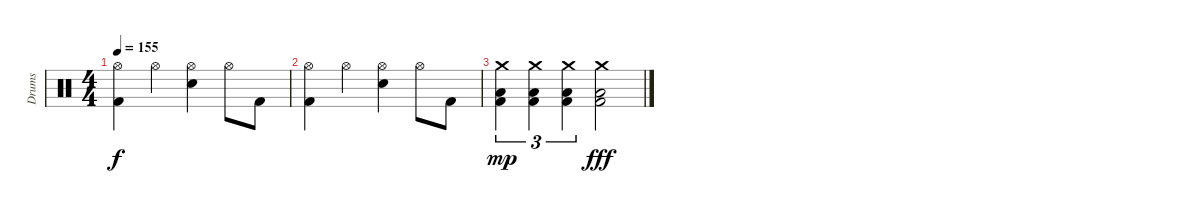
\track ("Drums" "Drums") {instrument percussion}
\staff {score}
\articulation defaults
\ts (4 4)
\tempo 155
\clef neutral
\ks c
("Kick (hit) 2" "Hi-Hat (open)").4{dy f} "Hi-Hat (open)".4 ("Electric Snare (hit)" "Hi-Hat (open)").4 "Hi-Hat (open)".8 "Kick (hit) 2".8 |
("Kick (hit) 2" "Hi-Hat (open)").4 "Hi-Hat (open)".4 ("Electric Snare (hit)" "Hi-Hat (open)").4 "Hi-Hat (open)".8 "Kick (hit) 2".8 |
("Kick (hit) 2" "Low Tom (hit)" "Crash medium (hit)").4{tu (3 2) dy mp} ("Kick (hit) 2" "Low Tom (hit)" "Crash medium (hit)").4{tu (3 2)} ("Kick (hit) 2" "Low Tom (hit)" "Crash medium (hit)").4{tu (3 2)} ("Kick (hit) 2" "Low Tom (hit)" "Crash medium (hit)").2{dy fff}
